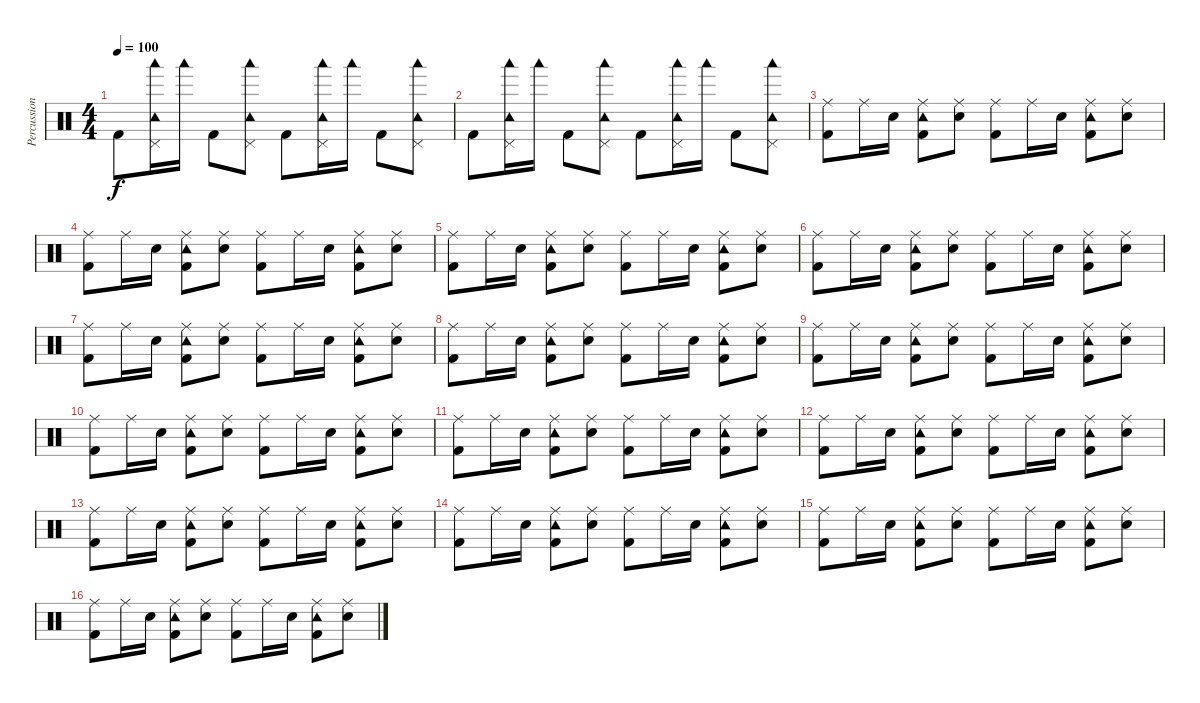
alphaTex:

\track ("Percussion" "Percussion") {instrument percussion}
\staff {score}
\articulation defaults
\ts (4 4)
\tempo 100
\clef neutral
\ks c "Kick (hit) 2".8{dy f}
("Woodblock low (hit)" "Tambourine (hit)" "Pedal Hi-Hat (hit)").16 "Woodblock low (hit)".16 "Kick (hit) 2".8 ("Woodblock low (hit)" "Tambourine (hit)" "Pedal Hi-Hat (hit)").8 "Kick (hit) 2".8 ("Tambourine (hit)" "Woodblock low (hit)" "Pedal Hi-Hat (hit)").16 "Woodblock low (hit)".16 "Kick (hit) 2".8 ("Woodblock low (hit)" "Tambourine (hit)" "Pedal Hi-Hat (hit)").8 |
"Kick (hit) 2".8 ("Woodblock low (hit)" "Tambourine (hit)" "Pedal Hi-Hat (hit)").16 "Woodblock low (hit)".16 "Kick (hit) 2".8 ("Woodblock low (hit)" "Tambourine (hit)" "Pedal Hi-Hat (hit)").8 "Kick (hit) 2".8 ("Tambourine (hit)" "Woodblock low (hit)" "Pedal Hi-Hat (hit)").16 "Woodblock low (hit)".16 "Kick (hit) 2".8 ("Woodblock low (hit)" "Tambourine (hit)" "Pedal Hi-Hat (hit)").8 |
("Kick (hit) 2" "Ride (middle)").8 "Ride (middle)".16 "Electric Snare (hit)".16 ("Kick (hit) 2" "Ride (middle)" "Tambourine (hit)").8 ("Ride (middle)" "Electric Snare (hit)").8 ("Kick (hit) 2" "Ride (middle)").8 "Ride (middle)".16 "Electric Snare (hit)".16 ("Kick (hit) 2" "Ride (middle)" "Tambourine (hit)").8 ("Ride (middle)" "Electric Snare (hit)").8 |
("Kick (hit) 2" "Ride (middle)").8 "Ride (middle)".16 "Electric Snare (hit)".16 ("Kick (hit) 2" "Ride (middle)" "Tambourine (hit)").8 ("Ride (middle)" "Electric Snare (hit)").8 ("Kick (hit) 2" "Ride (middle)").8 "Ride (middle)".16 "Electric Snare (hit)".16 ("Kick (hit) 2" "Ride (middle)" "Tambourine (hit)").8 ("Ride (middle)" "Electric Snare (hit)").8 |
("Kick (hit) 2" "Ride (middle)").8 "Ride (middle)".16 "Electric Snare (hit)".16 ("Kick (hit) 2" "Ride (middle)" "Tambourine (hit)").8 ("Ride (middle)" "Electric Snare (hit)").8 ("Kick (hit) 2" "Ride (middle)").8 "Ride (middle)".16 "Electric Snare (hit)".16 ("Kick (hit) 2" "Ride (middle)" "Tambourine (hit)").8 ("Ride (middle)" "Electric Snare (hit)").8 |
("Kick (hit) 2" "Ride (middle)").8 "Ride (middle)".16 "Electric Snare (hit)".16 ("Kick (hit) 2" "Ride (middle)" "Tambourine (hit)").8 ("Ride (middle)" "Electric Snare (hit)").8 ("Kick (hit) 2" "Ride (middle)").8 "Ride (middle)".16 "Electric Snare (hit)".16 ("Kick (hit) 2" "Ride (middle)" "Tambourine (hit)").8 ("Ride (middle)" "Electric Snare (hit)").8 |
("Kick (hit) 2" "Ride (middle)").8 "Ride (middle)".16 "Electric Snare (hit)".16 ("Kick (hit) 2" "Ride (middle)" "Tambourine (hit)").8 ("Ride (middle)" "Electric Snare (hit)").8 ("Kick (hit) 2" "Ride (middle)").8 "Ride (middle)".16 "Electric Snare (hit)".16 ("Kick (hit) 2" "Ride (middle)" "Tambourine (hit)").8 ("Ride (middle)" "Electric Snare (hit)").8 |
("Kick (hit) 2" "Ride (middle)").8 "Ride (middle)".16 "Electric Snare (hit)".16 ("Kick (hit) 2" "Ride (middle)" "Tambourine (hit)").8 ("Ride (middle)" "Electric Snare (hit)").8 ("Kick (hit) 2" "Ride (middle)").8 "Ride (middle)".16 "Electric Snare (hit)".16 ("Kick (hit) 2" "Ride (middle)" "Tambourine (hit)").8 ("Ride (middle)" "Electric Snare (hit)").8 |
("Kick (hit) 2" "Ride (middle)").8 "Ride (middle)".16 "Electric Snare (hit)".16 ("Kick (hit) 2" "Ride (middle)" "Tambourine (hit)").8 ("Ride (middle)" "Electric Snare (hit)").8 ("Kick (hit) 2" "Ride (middle)").8 "Ride (middle)".16 "Electric Snare (hit)".16 ("Kick (hit) 2" "Ride (middle)" "Tambourine (hit)").8 ("Ride (middle)" "Electric Snare (hit)").8 |
("Kick (hit) 2" "Ride (middle)").8 "Ride (middle)".16 "Electric Snare (hit)".16 ("Kick (hit) 2" "Ride (middle)" "Tambourine (hit)").8 ("Ride (middle)" "Electric Snare (hit)").8 ("Kick (hit) 2" "Ride (middle)").8 "Ride (middle)".16 "Electric Snare (hit)".16 ("Kick (hit) 2" "Ride (middle)" "Tambourine (hit)").8 ("Ride (middle)" "Electric Snare (hit)").8 |
("Kick (hit) 2" "Ride (middle)").8 "Ride (middle)".16 "Electric Snare (hit)".16 ("Kick (hit) 2" "Ride (middle)" "Tambourine (hit)").8 ("Ride (middle)" "Electric Snare (hit)").8 ("Kick (hit) 2" "Ride (middle)").8 "Ride (middle)".16 "Electric Snare (hit)".16 ("Kick (hit) 2" "Ride (middle)" "Tambourine (hit)").8 ("Ride (middle)" "Electric Snare (hit)").8 |
("Kick (hit) 2" "Ride (middle)").8 "Ride (middle)".16 "Electric Snare (hit)".16 ("Kick (hit) 2" "Ride (middle)" "Tambourine (hit)").8 ("Ride (middle)" "Electric Snare (hit)").8 ("Kick (hit) 2" "Ride (middle)").8 "Ride (middle)".16 "Electric Snare (hit)".16 ("Kick (hit) 2" "Ride (middle)" "Tambourine (hit)").8 ("Ride (middle)" "Electric Snare (hit)").8 |
("Kick (hit) 2" "Ride (middle)").8 "Ride (middle)".16 "Electric Snare (hit)".16 ("Kick (hit) 2" "Ride (middle)" "Tambourine (hit)").8 ("Ride (middle)" "Electric Snare (hit)").8 ("Kick (hit) 2" "Ride (middle)").8 "Ride (middle)".16 "Electric Snare (hit)".16 ("Kick (hit) 2" "Ride (middle)" "Tambourine (hit)").8 ("Ride (middle)" "Electric Snare (hit)").8 |
("Kick (hit) 2" "Ride (middle)").8 "Ride (middle)".16 "Electric Snare (hit)".16 ("Kick (hit) 2" "Ride (middle)" "Tambourine (hit)").8 ("Ride (middle)" "Electric Snare (hit)").8 ("Kick (hit) 2" "Ride (middle)").8 "Ride (middle)".16 "Electric Snare (hit)".16 ("Kick (hit) 2" "Ride (middle)" "Tambourine (hit)").8 ("Ride (middle)" "Electric Snare (hit)").8 |
("Kick (hit) 2" "Ride (middle)").8 "Ride (middle)".16 "Electric Snare (hit)".16 ("Kick (hit) 2" "Ride (middle)" "Tambourine (hit)").8 ("Ride (middle)" "Electric Snare (hit)").8 ("Kick (hit) 2" "Ride (middle)").8 "Ride (middle)".16 "Electric Snare (hit)".16 ("Kick (hit) 2" "Ride (middle)" "Tambourine (hit)").8 ("Ride (middle)" "Electric Snare (hit)").8 |
("Kick (hit) 2" "Ride (middle)").8 "Ride (middle)".16 "Electric Snare (hit)".16 ("Kick (hit) 2" "Ride (middle)" "Tambourine (hit)").8 ("Ride (middle)" "Electric Snare (hit)").8 ("Kick (hit) 2" "Ride (middle)").8 "Ride (middle)".16 "Electric Snare (hit)".16 ("Kick (hit) 2" "Ride (middle)" "Tambourine (hit)").8 ("Ride (middle)" "Electric Snare (hit)").8
